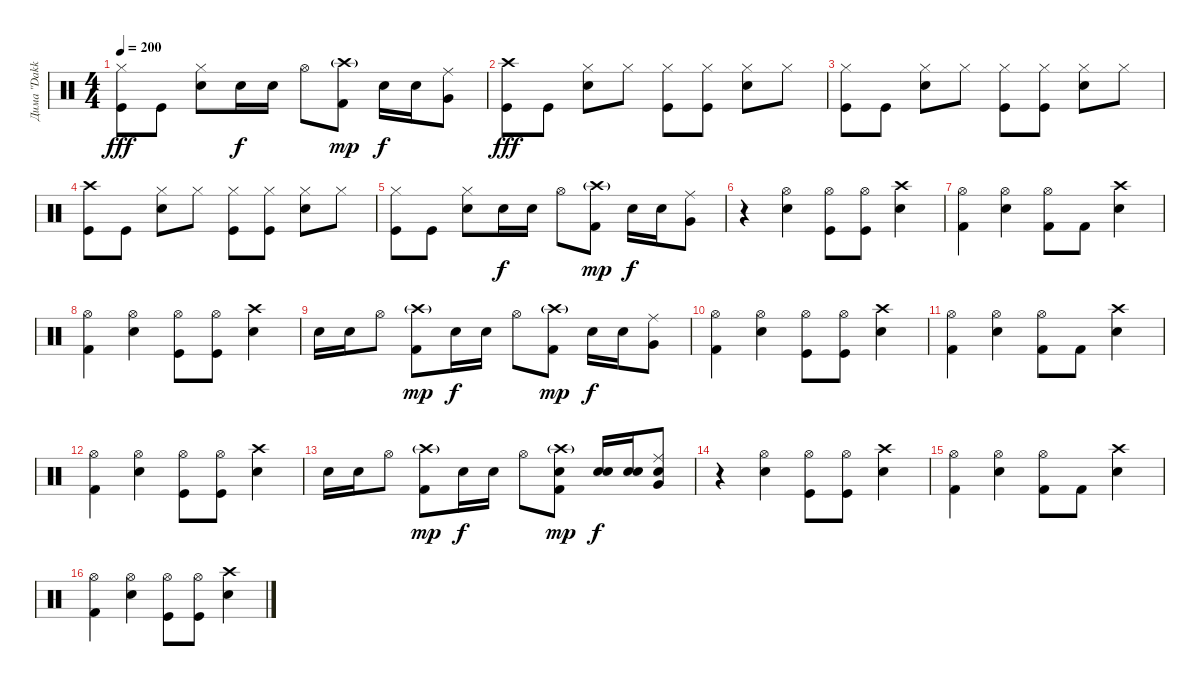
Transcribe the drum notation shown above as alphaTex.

\track ("Дима \"Dakkar\" Кеменов" "Дима \"Dakk") {instrument percussion}
\staff
\articulation defaults
\ts (4 4)
\tempo 200
\clef neutral
\ks c
("Hi-Hat (closed)" "Kick (hit)").8{dy fff} "Kick (hit)".8 ("Hi-Hat (closed)" "Snare (hit) 2").8 "Electric Snare (hit)".16{dy f} "Electric Snare (hit)".16 "Hi-Hat (open)".8 ("Crash high (hit)"{g} "Kick (hit) 2").8{dy mp} "Electric Snare (hit)".16{dy f} "Electric Snare (hit)".16 ("Ride (middle)" "Very Low Tom (hit)").8 |
("Crash high (hit)" "Kick (hit)").8{dy fff} "Kick (hit)".8 ("Hi-Hat (closed)" "Snare (hit) 2").8 "Hi-Hat (closed)".8 ("Hi-Hat (closed)" "Kick (hit)").8 ("Hi-Hat (closed)" "Kick (hit)").8 ("Hi-Hat (closed)" "Snare (hit) 2").8 "Hi-Hat (closed)".8 |
("Hi-Hat (closed)" "Kick (hit)").8 "Kick (hit)".8 ("Hi-Hat (closed)" "Snare (hit) 2").8 "Hi-Hat (closed)".8 ("Hi-Hat (closed)" "Kick (hit)").8 ("Hi-Hat (closed)" "Kick (hit)").8 ("Hi-Hat (closed)" "Snare (hit) 2").8 "Hi-Hat (closed)".8 |
("Crash high (hit)" "Kick (hit)").8 "Kick (hit)".8 ("Hi-Hat (closed)" "Snare (hit) 2").8 "Hi-Hat (closed)".8 ("Hi-Hat (closed)" "Kick (hit)").8 ("Hi-Hat (closed)" "Kick (hit)").8 ("Hi-Hat (closed)" "Snare (hit) 2").8 "Hi-Hat (closed)".8 |
("Hi-Hat (closed)" "Kick (hit)").8 "Kick (hit)".8 ("Hi-Hat (closed)" "Snare (hit) 2").8 "Electric Snare (hit)".16{dy f} "Electric Snare (hit)".16 "Hi-Hat (open)".8 ("Crash high (hit)"{g} "Kick (hit) 2").8{dy mp} "Electric Snare (hit)".16{dy f} "Electric Snare (hit)".16 ("Ride (middle)" "Very Low Tom (hit)").8 |
r.4 ("Hi-Hat (open)" "Electric Snare (hit)").4 ("Hi-Hat (open)" "Kick (hit)").8 ("Hi-Hat (open)" "Kick (hit)").8 ("Crash high (hit)" "Electric Snare (hit)").4 |
("Hi-Hat (open)" "Kick (hit) 2").4 ("Hi-Hat (open)" "Electric Snare (hit)").4 ("Hi-Hat (open)" "Kick (hit) 2").8 "Kick (hit) 2".8 ("Crash high (hit)" "Electric Snare (hit)").4 |
("Hi-Hat (open)" "Kick (hit) 2").4 ("Hi-Hat (open)" "Electric Snare (hit)").4 ("Hi-Hat (open)" "Kick (hit)").8 ("Hi-Hat (open)" "Kick (hit)").8 ("Crash high (hit)" "Electric Snare (hit)").4 |
"Electric Snare (hit)".16 "Electric Snare (hit)".16 "Hi-Hat (open)".8 ("Crash high (hit)"{g} "Kick (hit) 2").8{dy mp} "Electric Snare (hit)".16{dy f} "Electric Snare (hit)".16 "Hi-Hat (open)".8 ("Crash high (hit)"{g} "Kick (hit) 2").8{dy mp} "Electric Snare (hit)".16{dy f} "Electric Snare (hit)".16 ("Ride (middle)" "Very Low Tom (hit)").8 |
("Hi-Hat (open)" "Kick (hit) 2").4 ("Hi-Hat (open)" "Electric Snare (hit)").4 ("Hi-Hat (open)" "Kick (hit)").8 ("Hi-Hat (open)" "Kick (hit)").8 ("Crash high (hit)" "Electric Snare (hit)").4 |
("Hi-Hat (open)" "Kick (hit) 2").4 ("Hi-Hat (open)" "Electric Snare (hit)").4 ("Hi-Hat (open)" "Kick (hit) 2").8 "Kick (hit) 2".8 ("Crash high (hit)" "Electric Snare (hit)").4 |
("Hi-Hat (open)" "Kick (hit) 2").4 ("Hi-Hat (open)" "Electric Snare (hit)").4 ("Hi-Hat (open)" "Kick (hit)").8 ("Hi-Hat (open)" "Kick (hit)").8 ("Crash high (hit)" "Electric Snare (hit)").4 |
"Electric Snare (hit)".16 "Electric Snare (hit)".16 "Hi-Hat (open)".8 ("Crash high (hit)"{g} "Kick (hit) 2").8{dy mp} "Electric Snare (hit)".16{dy f} "Electric Snare (hit)".16 "Hi-Hat (open)".8 ("Electric Snare (hit)" "Crash high (hit)"{g} "Kick (hit) 2").8{dy mp} ("Electric Snare (hit)" "Electric Snare (hit)").16{dy f} ("Electric Snare (hit)" "Electric Snare (hit)").16 ("Electric Snare (hit)" "Ride (middle)" "Very Low Tom (hit)").8 |
r.4 ("Hi-Hat (open)" "Electric Snare (hit)").4 ("Hi-Hat (open)" "Kick (hit)").8 ("Hi-Hat (open)" "Kick (hit)").8 ("Crash high (hit)" "Electric Snare (hit)").4 |
("Hi-Hat (open)" "Kick (hit) 2").4 ("Hi-Hat (open)" "Electric Snare (hit)").4 ("Hi-Hat (open)" "Kick (hit) 2").8 "Kick (hit) 2".8 ("Crash high (hit)" "Electric Snare (hit)").4 |
("Hi-Hat (open)" "Kick (hit) 2").4 ("Hi-Hat (open)" "Electric Snare (hit)").4 ("Hi-Hat (open)" "Kick (hit)").8 ("Hi-Hat (open)" "Kick (hit)").8 ("Crash high (hit)" "Electric Snare (hit)").4
